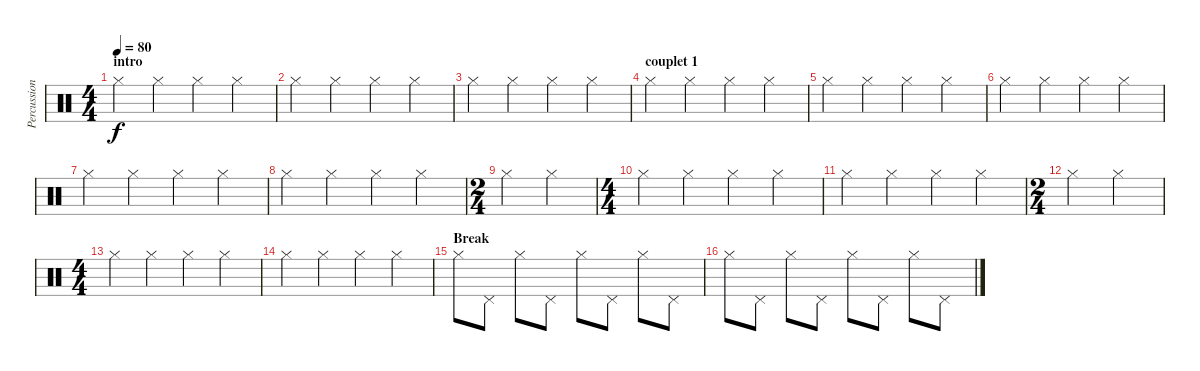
\track ("Percussions" "Percussion") {instrument percussion}
\staff {score}
\articulation defaults
\ts (4 4)
\section ("" "intro")
\tempo 80
\clef neutral
\ks c "Hi-Hat (closed)".4{dy f} "Hi-Hat (closed)".4 "Hi-Hat (closed)".4 "Hi-Hat (closed)".4
|
"Hi-Hat (closed)".4 "Hi-Hat (closed)".4 "Hi-Hat (closed)".4 "Hi-Hat (closed)".4 |
"Hi-Hat (closed)".4 "Hi-Hat (closed)".4 "Hi-Hat (closed)".4 "Hi-Hat (closed)".4 |
\section ("" "couplet 1")
"Hi-Hat (closed)".4 "Hi-Hat (closed)".4 "Hi-Hat (closed)".4 "Hi-Hat (closed)".4 |
"Hi-Hat (closed)".4 "Hi-Hat (closed)".4 "Hi-Hat (closed)".4 "Hi-Hat (closed)".4 |
"Hi-Hat (closed)".4 "Hi-Hat (closed)".4 "Hi-Hat (closed)".4 "Hi-Hat (closed)".4 |
"Hi-Hat (closed)".4 "Hi-Hat (closed)".4 "Hi-Hat (closed)".4 "Hi-Hat (closed)".4 |
"Hi-Hat (closed)".4 "Hi-Hat (closed)".4 "Hi-Hat (closed)".4 "Hi-Hat (closed)".4 |
\ts (2 4)
"Hi-Hat (closed)".4 "Hi-Hat (closed)".4 |
\ts (4 4)
"Hi-Hat (closed)".4 "Hi-Hat (closed)".4 "Hi-Hat (closed)".4 "Hi-Hat (closed)".4 |
"Hi-Hat (closed)".4 "Hi-Hat (closed)".4 "Hi-Hat (closed)".4 "Hi-Hat (closed)".4 |
\ts (2 4)
"Hi-Hat (closed)".4 "Hi-Hat (closed)".4 |
\ts (4 4)
"Hi-Hat (closed)".4 "Hi-Hat (closed)".4 "Hi-Hat (closed)".4 "Hi-Hat (closed)".4 |
"Hi-Hat (closed)".4 "Hi-Hat (closed)".4 "Hi-Hat (closed)".4 "Hi-Hat (closed)".4 |
\section ("" "Break")
"Hi-Hat (closed)".8 "Pedal Hi-Hat (hit)".8 "Hi-Hat (closed)".8 "Pedal Hi-Hat (hit)".8 "Hi-Hat (closed)".8 "Pedal Hi-Hat (hit)".8 "Hi-Hat (closed)".8 "Pedal Hi-Hat (hit)".8 |
"Hi-Hat (closed)".8 "Pedal Hi-Hat (hit)".8 "Hi-Hat (closed)".8 "Pedal Hi-Hat (hit)".8 "Hi-Hat (closed)".8 "Pedal Hi-Hat (hit)".8 "Hi-Hat (closed)".8 "Pedal Hi-Hat (hit)".8
